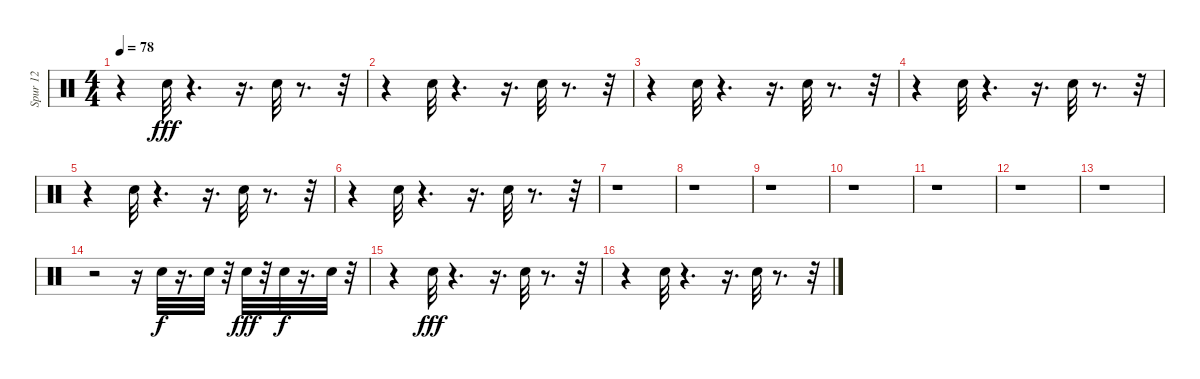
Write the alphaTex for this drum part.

\track ("Spur 12" "Spur 12") {instrument percussion}
\staff {score}
\articulation defaults
\ts (4 4)
\tempo 78
\clef neutral
\ks c
r.4{dy fff} "Electric Snare (hit)".32 r.4{d} r.16{d} "Electric Snare (hit)".32 r.8{d} r.32 |
r.4 "Electric Snare (hit)".32 r.4{d} r.16{d} "Electric Snare (hit)".32 r.8{d} r.32 |
r.4 "Electric Snare (hit)".32 r.4{d} r.16{d} "Electric Snare (hit)".32 r.8{d} r.32 |
r.4 "Electric Snare (hit)".32 r.4{d} r.16{d} "Electric Snare (hit)".32 r.8{d} r.32 |
r.4 "Electric Snare (hit)".32 r.4{d} r.16{d} "Electric Snare (hit)".32 r.8{d} r.32 |
r.4 "Electric Snare (hit)".32 r.4{d} r.16{d} "Electric Snare (hit)".32 r.8{d} r.32 |
r.1 |
r.1 |
r.1 |
r.1 |
r.1 |
r.1 |
r.1 |
r.2 r.16 "Electric Snare (hit)".32{dy f} r.16{d} "Electric Snare (hit)".32 r.32 "Electric Snare (hit)".32{dy fff} r.32 "Electric Snare (hit)".32{dy f} r.16{d} "Electric Snare (hit)".32 r.32 |
r.4 "Electric Snare (hit)".32{dy fff} r.4{d} r.16{d} "Electric Snare (hit)".32 r.8{d} r.32 |
r.4 "Electric Snare (hit)".32 r.4{d} r.16{d} "Electric Snare (hit)".32 r.8{d} r.32
